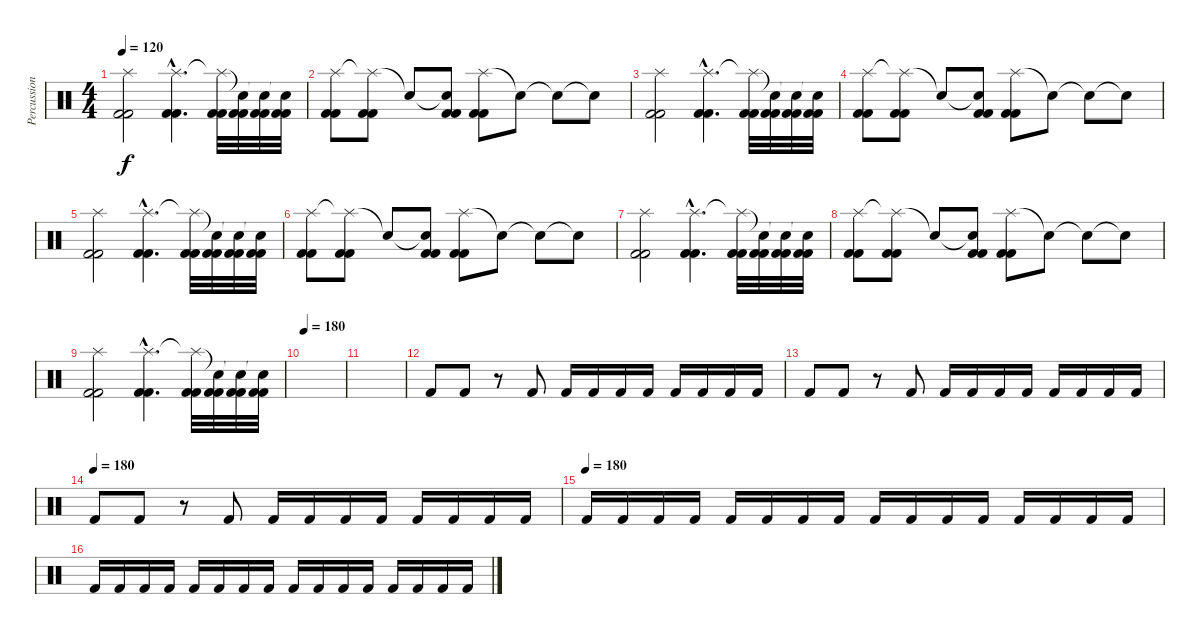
\track ("Percussion 1" "Percussion") {instrument percussion}
\staff {score}
\articulation defaults
\ts (4 4)
\tempo 120
\clef neutral
\ks c
("Kick (hit) 2" "Kick (hit) 2" "Splash (hit)").2{dy f} ("Splash (hit)"{hac} "Kick (hit) 2"{hac} "Kick (hit) 2"{hac}).4{d} ("Splash (hit)"{t} "Kick (hit) 2" "Kick (hit) 2").32 ("Snare (hit)"{t} "Kick (hit) 2" "Kick (hit) 2").32 ("Snare (hit)"{t} "Kick (hit) 2" "Kick (hit) 2").32 ("Snare (hit)"{t} "Kick (hit) 2" "Kick (hit) 2").32 |
("Splash (hit)" "Kick (hit) 2" "Kick (hit) 2").8 ("Splash (hit)"{t} "Kick (hit) 2" "Kick (hit) 2").8 "Snare (hit)"{t}.8 ("Snare (hit)"{t} "Kick (hit) 2" "Kick (hit) 2").8 ("Splash (hit)" "Kick (hit) 2" "Kick (hit) 2").8 "Snare (hit)"{t}.8 "Snare (hit)"{t}.8 "Snare (hit)"{t}.8 |
("Kick (hit) 2" "Kick (hit) 2" "Splash (hit)").2 ("Splash (hit)"{hac} "Kick (hit) 2"{hac} "Kick (hit) 2"{hac}).4{d} ("Splash (hit)"{t} "Kick (hit) 2" "Kick (hit) 2").32 ("Snare (hit)"{t} "Kick (hit) 2" "Kick (hit) 2").32 ("Snare (hit)"{t} "Kick (hit) 2" "Kick (hit) 2").32 ("Snare (hit)"{t} "Kick (hit) 2" "Kick (hit) 2").32 |
("Splash (hit)" "Kick (hit) 2" "Kick (hit) 2").8 ("Splash (hit)"{t} "Kick (hit) 2" "Kick (hit) 2").8 "Snare (hit)"{t}.8 ("Snare (hit)"{t} "Kick (hit) 2" "Kick (hit) 2").8 ("Splash (hit)" "Kick (hit) 2" "Kick (hit) 2").8 "Snare (hit)"{t}.8 "Snare (hit)"{t}.8 "Snare (hit)"{t}.8 |
("Kick (hit) 2" "Kick (hit) 2" "Splash (hit)").2 ("Splash (hit)"{hac} "Kick (hit) 2"{hac} "Kick (hit) 2"{hac}).4{d} ("Splash (hit)"{t} "Kick (hit) 2" "Kick (hit) 2").32 ("Snare (hit)"{t} "Kick (hit) 2" "Kick (hit) 2").32 ("Snare (hit)"{t} "Kick (hit) 2" "Kick (hit) 2").32 ("Snare (hit)"{t} "Kick (hit) 2" "Kick (hit) 2").32 |
("Splash (hit)" "Kick (hit) 2" "Kick (hit) 2").8 ("Splash (hit)"{t} "Kick (hit) 2" "Kick (hit) 2").8 "Snare (hit)"{t}.8 ("Snare (hit)"{t} "Kick (hit) 2" "Kick (hit) 2").8 ("Splash (hit)" "Kick (hit) 2" "Kick (hit) 2").8 "Snare (hit)"{t}.8 "Snare (hit)"{t}.8 "Snare (hit)"{t}.8 |
("Kick (hit) 2" "Kick (hit) 2" "Splash (hit)").2 ("Splash (hit)"{hac} "Kick (hit) 2"{hac} "Kick (hit) 2"{hac}).4{d} ("Splash (hit)"{t} "Kick (hit) 2" "Kick (hit) 2").32 ("Snare (hit)"{t} "Kick (hit) 2" "Kick (hit) 2").32 ("Snare (hit)"{t} "Kick (hit) 2" "Kick (hit) 2").32 ("Snare (hit)"{t} "Kick (hit) 2" "Kick (hit) 2").32 |
("Splash (hit)" "Kick (hit) 2" "Kick (hit) 2").8 ("Splash (hit)"{t} "Kick (hit) 2" "Kick (hit) 2").8 "Snare (hit)"{t}.8 ("Snare (hit)"{t} "Kick (hit) 2" "Kick (hit) 2").8 ("Splash (hit)" "Kick (hit) 2" "Kick (hit) 2").8 "Snare (hit)"{t}.8 "Snare (hit)"{t}.8 "Snare (hit)"{t}.8 |
("Kick (hit) 2" "Kick (hit) 2" "Splash (hit)").2 ("Splash (hit)"{hac} "Kick (hit) 2"{hac} "Kick (hit) 2"{hac}).4{d} ("Splash (hit)"{t} "Kick (hit) 2" "Kick (hit) 2").32 ("Snare (hit)"{t} "Kick (hit) 2" "Kick (hit) 2").32 ("Snare (hit)"{t} "Kick (hit) 2" "Kick (hit) 2").32 ("Snare (hit)"{t} "Kick (hit) 2" "Kick (hit) 2").32 |
\tempo 180
|
|
"Kick (hit) 2".8 "Kick (hit) 2".8 r.8 "Kick (hit) 2".8 "Kick (hit) 2".16 "Kick (hit) 2".16 "Kick (hit) 2".16 "Kick (hit) 2".16 "Kick (hit) 2".16 "Kick (hit) 2".16 "Kick (hit) 2".16 "Kick (hit) 2".16 |
"Kick (hit) 2".8 "Kick (hit) 2".8 r.8 "Kick (hit) 2".8 "Kick (hit) 2".16 "Kick (hit) 2".16 "Kick (hit) 2".16 "Kick (hit) 2".16 "Kick (hit) 2".16 "Kick (hit) 2".16 "Kick (hit) 2".16 "Kick (hit) 2".16 |
\tempo (180)
"Kick (hit) 2".8 "Kick (hit) 2".8 r.8 "Kick (hit) 2".8 "Kick (hit) 2".16 "Kick (hit) 2".16 "Kick (hit) 2".16 "Kick (hit) 2".16 "Kick (hit) 2".16 "Kick (hit) 2".16 "Kick (hit) 2".16 "Kick (hit) 2".16 |
\tempo (180)
"Kick (hit) 2".16 "Kick (hit) 2".16 "Kick (hit) 2".16 "Kick (hit) 2".16 "Kick (hit) 2".16 "Kick (hit) 2".16 "Kick (hit) 2".16 "Kick (hit) 2".16 "Kick (hit) 2".16 "Kick (hit) 2".16 "Kick (hit) 2".16 "Kick (hit) 2".16 "Kick (hit) 2".16 "Kick (hit) 2".16 "Kick (hit) 2".16 "Kick (hit) 2".16 |
"Kick (hit) 2".16 "Kick (hit) 2".16 "Kick (hit) 2".16 "Kick (hit) 2".16 "Kick (hit) 2".16 "Kick (hit) 2".16 "Kick (hit) 2".16 "Kick (hit) 2".16 "Kick (hit) 2".16 "Kick (hit) 2".16 "Kick (hit) 2".16 "Kick (hit) 2".16 "Kick (hit) 2".16 "Kick (hit) 2".16 "Kick (hit) 2".16 "Kick (hit) 2".16
